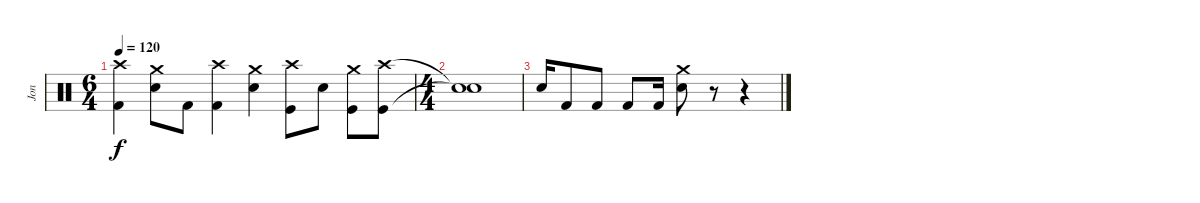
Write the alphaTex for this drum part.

\track ("Jon" "Jon") {instrument percussion}
\staff {score}
\articulation defaults
\ts (6 4)
\tempo 120
\clef neutral
\ks c
("Crash high (hit)" "Kick (hit) 2").4{dy f} ("Snare (hit) 2" "Crash medium (hit)").8 "Kick (hit) 2".8 ("Crash high (hit)" "Kick (hit) 2").4 ("Snare (hit) 2" "Crash medium (hit)").4 ("Crash high (hit)" "Kick (hit)").8 "Snare (hit) 2".8 ("Crash medium (hit)" "Kick (hit)").8 ("Crash high (hit)" "Kick (hit)").8 |
\ts (4 4)
("Snare (hit)"{t} "Snare (hit)"{t}).1 |
"Snare (hit) 2".16 "Kick (hit) 2".8 "Kick (hit) 2".8 "Kick (hit) 2".8 "Kick (hit) 2".16 ("Crash medium (hit)" "Snare (hit) 2").8 r.8 r.4
